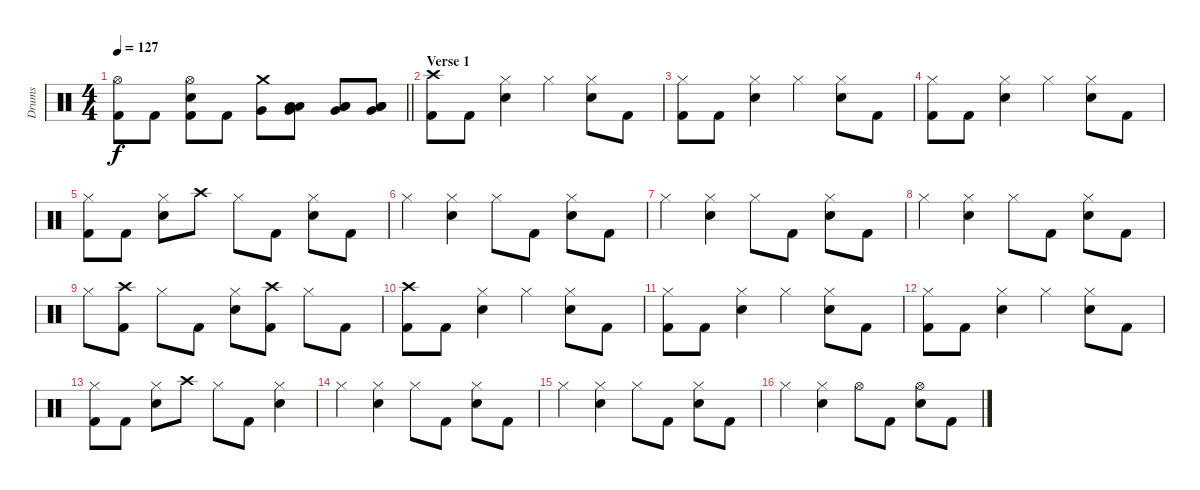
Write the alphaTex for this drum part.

\track ("Drums" "Drums") {instrument percussion}
\staff {score}
\articulation defaults
\ts (4 4)
\tempo 127
\clef neutral
\barLineRight lightlight
\ks c
("Hi-Hat (open)" "Kick (hit) 2").8{dy f} "Kick (hit) 2".8 ("Hi-Hat (open)" "Electric Snare (hit)" "Kick (hit) 2").8 "Kick (hit) 2".8 ("Crash medium (hit)" "Very Low Tom (hit)").8 ("Low Floor Tom (hit)" "Low Tom (hit)" "Very Low Tom (hit)").8 ("Low Floor Tom (hit)" "Low Tom (hit)" "Very Low Tom (hit)").8 ("Low Floor Tom (hit)" "Low Tom (hit)" "Very Low Tom (hit)").8 |
\section ("" "Verse 1")
("Crash high (hit)" "Kick (hit) 2").8 "Kick (hit) 2".8 ("Hi-Hat (closed)" "Electric Snare (hit)").4 "Hi-Hat (closed)".4 ("Hi-Hat (closed)" "Electric Snare (hit)").8 "Kick (hit) 2".8 |
("Hi-Hat (closed)" "Kick (hit) 2").8 "Kick (hit) 2".8 ("Hi-Hat (closed)" "Electric Snare (hit)").4 "Hi-Hat (closed)".4 ("Hi-Hat (closed)" "Electric Snare (hit)").8 "Kick (hit) 2".8 |
("Hi-Hat (closed)" "Kick (hit) 2").8 "Kick (hit) 2".8 ("Hi-Hat (closed)" "Electric Snare (hit)").4 "Hi-Hat (closed)".4 ("Hi-Hat (closed)" "Electric Snare (hit)").8 "Kick (hit) 2".8 |
("Hi-Hat (closed)" "Kick (hit) 2").8 "Kick (hit) 2".8 ("Hi-Hat (closed)" "Electric Snare (hit)").8 "Crash high (hit)".8 "Hi-Hat (closed)".8 "Kick (hit) 2".8 ("Hi-Hat (closed)" "Electric Snare (hit)").8 "Kick (hit) 2".8 |
"Hi-Hat (closed)".4 ("Hi-Hat (closed)" "Electric Snare (hit)").4 "Hi-Hat (closed)".8 "Kick (hit) 2".8 ("Hi-Hat (closed)" "Electric Snare (hit)").8 "Kick (hit) 2".8 |
"Hi-Hat (closed)".4 ("Hi-Hat (closed)" "Electric Snare (hit)").4 "Hi-Hat (closed)".8 "Kick (hit) 2".8 ("Hi-Hat (closed)" "Electric Snare (hit)").8 "Kick (hit) 2".8 |
"Hi-Hat (closed)".4 ("Hi-Hat (closed)" "Electric Snare (hit)").4 "Hi-Hat (closed)".8 "Kick (hit) 2".8 ("Hi-Hat (closed)" "Electric Snare (hit)").8 "Kick (hit) 2".8 |
"Hi-Hat (closed)".8 ("Crash high (hit)" "Kick (hit) 2").8 "Hi-Hat (closed)".8 "Kick (hit) 2".8 ("Hi-Hat (closed)" "Electric Snare (hit)").8 ("Crash high (hit)" "Kick (hit) 2").8 "Hi-Hat (closed)".8 "Kick (hit) 2".8 |
("Crash high (hit)" "Kick (hit) 2").8 "Kick (hit) 2".8 ("Hi-Hat (closed)" "Electric Snare (hit)").4 "Hi-Hat (closed)".4 ("Hi-Hat (closed)" "Electric Snare (hit)").8 "Kick (hit) 2".8 |
("Hi-Hat (closed)" "Kick (hit) 2").8 "Kick (hit) 2".8 ("Hi-Hat (closed)" "Electric Snare (hit)").4 "Hi-Hat (closed)".4 ("Hi-Hat (closed)" "Electric Snare (hit)").8 "Kick (hit) 2".8 |
("Hi-Hat (closed)" "Kick (hit) 2").8 "Kick (hit) 2".8 ("Hi-Hat (closed)" "Electric Snare (hit)").4 "Hi-Hat (closed)".4 ("Hi-Hat (closed)" "Electric Snare (hit)").8 "Kick (hit) 2".8 |
("Hi-Hat (closed)" "Kick (hit) 2").8 "Kick (hit) 2".8 ("Hi-Hat (closed)" "Electric Snare (hit)").8 "Crash high (hit)".8 "Hi-Hat (closed)".8 "Kick (hit) 2".8 ("Hi-Hat (closed)" "Electric Snare (hit)").4 |
"Hi-Hat (closed)".4 ("Hi-Hat (closed)" "Electric Snare (hit)").4 "Hi-Hat (closed)".8 "Kick (hit) 2".8 ("Hi-Hat (closed)" "Electric Snare (hit)").8 "Kick (hit) 2".8 |
"Hi-Hat (closed)".4 ("Hi-Hat (closed)" "Electric Snare (hit)").4 "Hi-Hat (closed)".8 "Kick (hit) 2".8 ("Hi-Hat (closed)" "Electric Snare (hit)").8 "Kick (hit) 2".8 |
"Hi-Hat (closed)".4 ("Hi-Hat (closed)" "Electric Snare (hit)").4 "Hi-Hat (open)".8 "Kick (hit) 2".8 ("Hi-Hat (open)" "Electric Snare (hit)").8 "Kick (hit) 2".8
